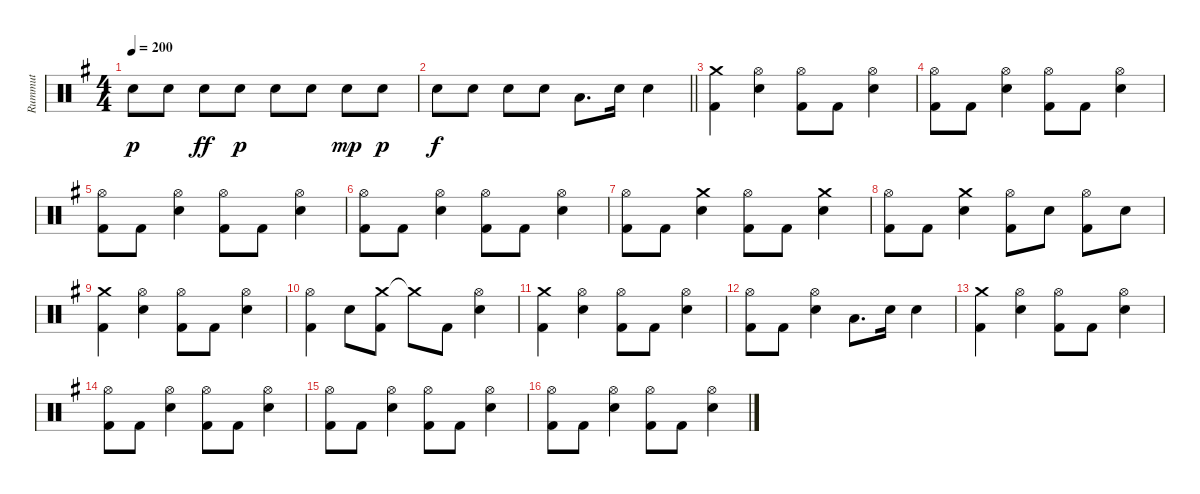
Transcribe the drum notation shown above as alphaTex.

\track ("Rummut" "Rummut") {instrument percussion}
\staff {score}
\articulation defaults
\ts (4 4)
\tempo 200
\clef neutral
\ks g "Snare (hit) 2".8{dy p} "Snare (hit) 2".8 "Snare (hit) 2".8{dy ff} "Snare (hit) 2".8{dy p} "Snare (hit) 2".8 "Snare (hit) 2".8 "Snare (hit) 2".8{dy mp} "Snare (hit) 2".8{dy p}
|
\barLineRight lightlight "Snare (hit) 2".8{dy f} "Snare (hit) 2".8 "Snare (hit) 2".8 "Snare (hit) 2".8 "Low Tom (hit)".8{d} "Snare (hit) 2".16 "Snare (hit) 2".4
|
("Crash medium (hit)" "Kick (hit) 2").4 ("Hi-Hat (open)" "Snare (hit) 2").4 ("Hi-Hat (open)" "Kick (hit) 2").8 "Kick (hit) 2".8 ("Hi-Hat (open)" "Snare (hit) 2").4 |
("Hi-Hat (open)" "Kick (hit) 2").8 "Kick (hit) 2".8 ("Hi-Hat (open)" "Snare (hit) 2").4 ("Hi-Hat (open)" "Kick (hit) 2").8 "Kick (hit) 2".8 ("Hi-Hat (open)" "Snare (hit) 2").4 |
("Hi-Hat (open)" "Kick (hit) 2").8 "Kick (hit) 2".8 ("Hi-Hat (open)" "Snare (hit) 2").4 ("Hi-Hat (open)" "Kick (hit) 2").8 "Kick (hit) 2".8 ("Hi-Hat (open)" "Snare (hit) 2").4 |
("Hi-Hat (open)" "Kick (hit) 2").8 "Kick (hit) 2".8 ("Hi-Hat (open)" "Snare (hit) 2").4 ("Hi-Hat (open)" "Kick (hit) 2").8 "Kick (hit) 2".8 ("Hi-Hat (open)" "Snare (hit) 2").4 |
("Hi-Hat (open)" "Kick (hit) 2").8 "Kick (hit) 2".8 ("Crash medium (hit)" "Snare (hit) 2").4 ("Hi-Hat (open)" "Kick (hit) 2").8 "Kick (hit) 2".8 ("Crash medium (hit)" "Snare (hit) 2").4 |
("Hi-Hat (open)" "Kick (hit) 2").8 "Kick (hit) 2".8 ("Crash medium (hit)" "Snare (hit) 2").4 ("Hi-Hat (open)" "Kick (hit) 2").8 "Snare (hit) 2".8 ("Hi-Hat (open)" "Kick (hit) 2").8 "Snare (hit) 2".8 |
("Crash medium (hit)" "Kick (hit) 2").4 ("Hi-Hat (open)" "Snare (hit) 2").4 ("Hi-Hat (open)" "Kick (hit) 2").8 "Kick (hit) 2".8 ("Hi-Hat (open)" "Snare (hit) 2").4 |
("Hi-Hat (open)" "Kick (hit) 2").4 "Snare (hit) 2".8 ("Crash medium (hit)" "Kick (hit) 2").8 "Crash medium (hit)"{t}.8 "Kick (hit) 2".8 ("Hi-Hat (open)" "Snare (hit) 2").4 |
("Crash medium (hit)" "Kick (hit) 2").4 ("Hi-Hat (open)" "Snare (hit) 2").4 ("Hi-Hat (open)" "Kick (hit) 2").8 "Kick (hit) 2".8 ("Hi-Hat (open)" "Snare (hit) 2").4 |
("Hi-Hat (open)" "Kick (hit) 2").8 "Kick (hit) 2".8 ("Hi-Hat (open)" "Snare (hit) 2").4 "Low Tom (hit)".8{d} "Snare (hit) 2".16 "Snare (hit) 2".4 |
("Crash medium (hit)" "Kick (hit) 2").4 ("Hi-Hat (open)" "Snare (hit) 2").4 ("Hi-Hat (open)" "Kick (hit) 2").8 "Kick (hit) 2".8 ("Hi-Hat (open)" "Snare (hit) 2").4 |
("Hi-Hat (open)" "Kick (hit) 2").8 "Kick (hit) 2".8 ("Hi-Hat (open)" "Snare (hit) 2").4 ("Hi-Hat (open)" "Kick (hit) 2").8 "Kick (hit) 2".8 ("Hi-Hat (open)" "Snare (hit) 2").4 |
("Hi-Hat (open)" "Kick (hit) 2").8 "Kick (hit) 2".8 ("Hi-Hat (open)" "Snare (hit) 2").4 ("Hi-Hat (open)" "Kick (hit) 2").8 "Kick (hit) 2".8 ("Hi-Hat (open)" "Snare (hit) 2").4 |
("Hi-Hat (open)" "Kick (hit) 2").8 "Kick (hit) 2".8 ("Hi-Hat (open)" "Snare (hit) 2").4 ("Hi-Hat (open)" "Kick (hit) 2").8 "Kick (hit) 2".8 ("Hi-Hat (open)" "Snare (hit) 2").4
